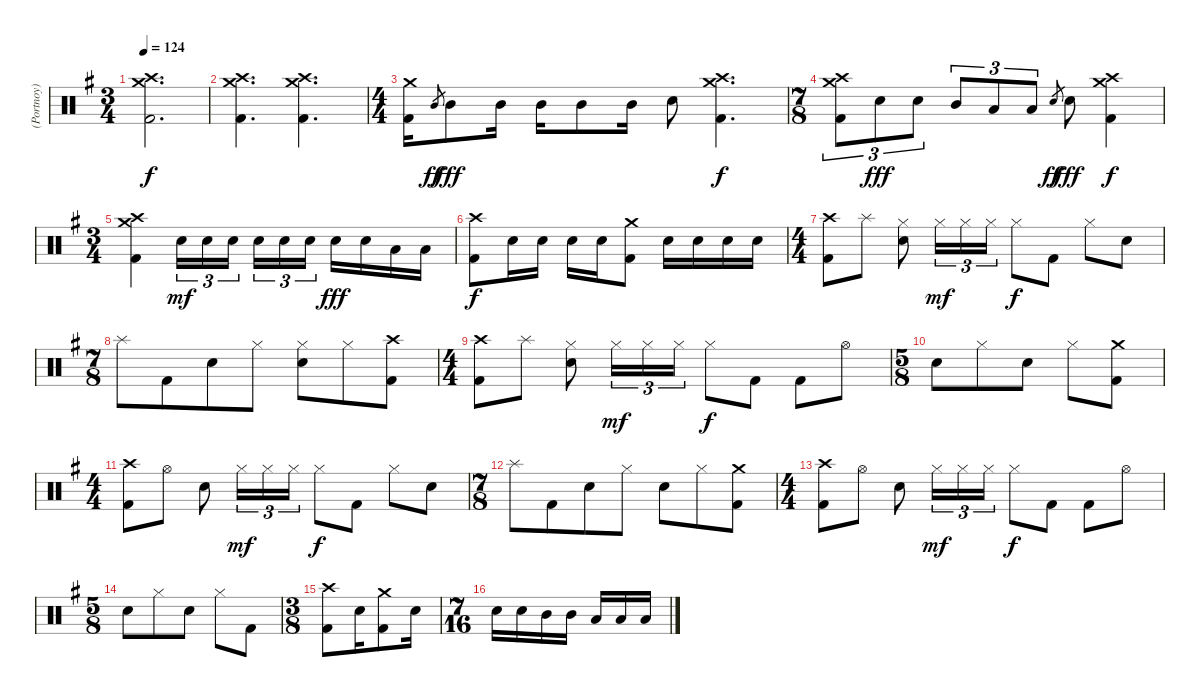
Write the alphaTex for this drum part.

\track ("(Portnoy) Drums" "(Portnoy) ") {instrument percussion}
\staff {score}
\articulation defaults
\ts (3 4)
\tempo 124
\clef neutral
\ks g
("Crash high (hit)" "Crash medium (hit)" "Kick (hit) 2").2{d dy f} |
("Crash high (hit)" "Crash medium (hit)" "Kick (hit) 2").4{d} ("Crash high (hit)" "Crash medium (hit)" "Kick (hit) 2").4{d} |
\ts (4 4)
("Crash medium (hit)" "Kick (hit) 2").16 "Mid Tom (hit)".8{gr dy ff} "Mid Tom (hit)".8{dy fff} "Mid Tom (hit)".16 "Mid Tom (hit)".16 "Mid Tom (hit)".8 "Mid Tom (hit)".16 "Snare (hit) 2".8 ("Crash high (hit)" "Crash medium (hit)" "Kick (hit) 2").4{d dy f} |
\ts (7 8)
("Crash high (hit)" "Crash medium (hit)" "Kick (hit) 2").8{tu (3 2)} "Snare (hit) 2".8{tu (3 2) dy fff} "Snare (hit) 2".8{tu (3 2)} "Mid Tom (hit)".8{tu (3 2)} "Low Tom (hit)".8{tu (3 2)} "Low Tom (hit)".8{tu (3 2)} "Snare (hit) 2".8{gr dy ff} "Snare (hit) 2".8{dy fff} ("Crash high (hit)" "Crash medium (hit)" "Kick (hit) 2").4{dy f} |
\ts (3 4)
("Crash high (hit)" "Crash medium (hit)" "Kick (hit) 2").4 "Snare (hit) 2".16{tu (3 2) dy mf} "Snare (hit) 2".16{tu (3 2)} "Snare (hit) 2".16{tu (3 2) beam splitsecondary} "Snare (hit) 2".16{tu (3 2)} "Snare (hit) 2".16{tu (3 2)} "Snare (hit) 2".16{tu (3 2)} "Snare (hit) 2".16{dy fff} "Snare (hit) 2".16 "Low Tom (hit)".16 "Low Tom (hit)".16 |
("Crash high (hit)" "Kick (hit) 2").8{dy f} "Snare (hit) 2".16 "Snare (hit) 2".16 "Snare (hit) 2".16 "Snare (hit) 2".16 ("Crash medium (hit)" "Kick (hit) 2").8 "Snare (hit) 2".16 "Snare (hit) 2".16 "Snare (hit) 2".16 "Snare (hit) 2".16 |
\ts (4 4)
("Crash high (hit)" "Kick (hit) 2").8 "Splash (hit)".8 ("Hi-Hat (closed)" "Snare (hit) 2").8 "Hi-Hat (closed)".16{tu (3 2) dy mf} "Hi-Hat (closed)".16{tu (3 2)} "Hi-Hat (closed)".16{tu (3 2)} "Hi-Hat (closed)".8{dy f} "Kick (hit) 2".8 "Hi-Hat (closed)".8 "Snare (hit) 2".8 |
\ts (7 8)
"Splash (hit)".8 "Kick (hit) 2".8 "Snare (hit) 2".8 "Hi-Hat (closed)".8 ("Hi-Hat (closed)" "Snare (hit) 2").8 "Hi-Hat (closed)".8 ("Crash high (hit)" "Kick (hit) 2").8 |
\ts (4 4)
("Crash high (hit)" "Kick (hit) 2").8 "Splash (hit)".8 ("Hi-Hat (closed)" "Snare (hit) 2").8 "Hi-Hat (closed)".16{tu (3 2) dy mf} "Hi-Hat (closed)".16{tu (3 2)} "Hi-Hat (closed)".16{tu (3 2)} "Hi-Hat (closed)".8{dy f} "Kick (hit) 2".8 "Kick (hit) 2".8 "Hi-Hat (open)".8 |
\ts (5 8)
"Snare (hit) 2".8 "Hi-Hat (closed)".8 "Snare (hit) 2".8 "Hi-Hat (closed)".8 ("Crash medium (hit)" "Kick (hit) 2").8 |
\ts (4 4)
("Crash high (hit)" "Kick (hit) 2").8 "Hi-Hat (open)".8 "Snare (hit) 2".8 "Hi-Hat (closed)".16{tu (3 2) dy mf} "Hi-Hat (closed)".16{tu (3 2)} "Hi-Hat (closed)".16{tu (3 2)} "Hi-Hat (closed)".8{dy f} "Kick (hit) 2".8 "Hi-Hat (closed)".8 "Snare (hit) 2".8 |
\ts (7 8)
"Splash (hit)".8 "Kick (hit) 2".8 "Snare (hit) 2".8 "Hi-Hat (closed)".8 "Snare (hit) 2".8 "Hi-Hat (closed)".8 ("Crash medium (hit)" "Kick (hit) 2").8 |
\ts (4 4)
("Crash high (hit)" "Kick (hit) 2").8 "Hi-Hat (open)".8 "Snare (hit) 2".8 "Hi-Hat (closed)".16{tu (3 2) dy mf} "Hi-Hat (closed)".16{tu (3 2)} "Hi-Hat (closed)".16{tu (3 2)} "Hi-Hat (closed)".8{dy f} "Kick (hit) 2".8 "Kick (hit) 2".8 "Hi-Hat (open)".8 |
\ts (5 8)
"Snare (hit) 2".8 "Hi-Hat (closed)".8 "Snare (hit) 2".8 "Hi-Hat (closed)".8 "Kick (hit) 2".8 |
\ts (3 8)
("Crash high (hit)" "Kick (hit) 2").8 "Snare (hit) 2".16 ("Crash medium (hit)" "Kick (hit) 2").8 "Snare (hit) 2".16 |
\ts (7 16)
"Snare (hit) 2".16 "Snare (hit) 2".16 "Mid Tom (hit)".16 "Mid Tom (hit)".16 "Low Tom (hit)".16 "Low Tom (hit)".16 "Low Tom (hit)".16
